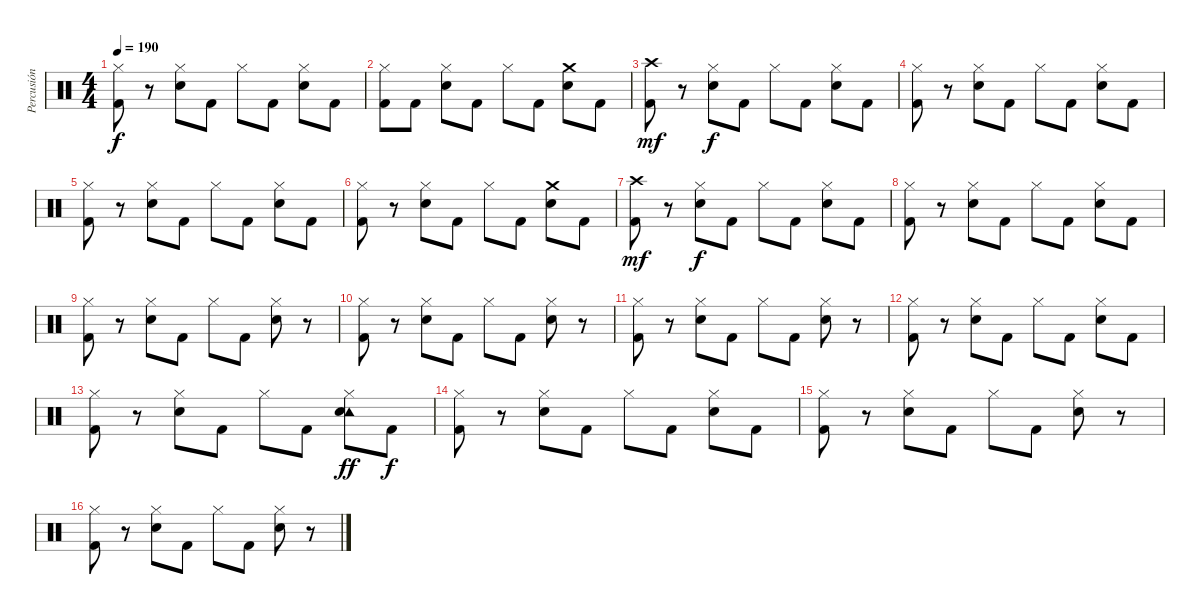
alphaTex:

\track ("Percusión" "Percusión") {instrument percussion}
\staff {score}
\articulation defaults
\ts (4 4)
\tempo 190
\clef neutral
\ks c
("Hi-Hat (closed)" "Kick (hit) 2").8{dy f} r.8 ("Hi-Hat (closed)" "Snare (hit) 2").8 "Kick (hit) 2".8 "Hi-Hat (closed)".8 "Kick (hit) 2".8 ("Hi-Hat (closed)" "Snare (hit) 2").8 "Kick (hit) 2".8 |
("Hi-Hat (closed)" "Kick (hit) 2").8 "Kick (hit) 2".8 ("Hi-Hat (closed)" "Snare (hit) 2").8 "Kick (hit) 2".8 "Hi-Hat (closed)".8 "Kick (hit) 2".8 ("Crash medium (hit)" "Snare (hit) 2").8 "Kick (hit) 2".8 |
("Crash high (hit)" "Kick (hit) 2").8{dy mf} r.8 ("Hi-Hat (closed)" "Snare (hit) 2").8{dy f} "Kick (hit) 2".8 "Hi-Hat (closed)".8 "Kick (hit) 2".8 ("Hi-Hat (closed)" "Snare (hit) 2").8 "Kick (hit) 2".8 |
("Hi-Hat (closed)" "Kick (hit) 2").8 r.8 ("Hi-Hat (closed)" "Snare (hit) 2").8 "Kick (hit) 2".8 "Hi-Hat (closed)".8 "Kick (hit) 2".8 ("Hi-Hat (closed)" "Snare (hit) 2").8 "Kick (hit) 2".8 |
("Hi-Hat (closed)" "Kick (hit) 2").8 r.8 ("Hi-Hat (closed)" "Snare (hit) 2").8 "Kick (hit) 2".8 "Hi-Hat (closed)".8 "Kick (hit) 2".8 ("Hi-Hat (closed)" "Snare (hit) 2").8 "Kick (hit) 2".8 |
("Hi-Hat (closed)" "Kick (hit) 2").8 r.8 ("Hi-Hat (closed)" "Snare (hit) 2").8 "Kick (hit) 2".8 "Hi-Hat (closed)".8 "Kick (hit) 2".8 ("Crash medium (hit)" "Snare (hit) 2").8 "Kick (hit) 2".8 |
("Crash high (hit)" "Kick (hit) 2").8{dy mf} r.8 ("Hi-Hat (closed)" "Snare (hit) 2").8{dy f} "Kick (hit) 2".8 "Hi-Hat (closed)".8 "Kick (hit) 2".8 ("Hi-Hat (closed)" "Snare (hit) 2").8 "Kick (hit) 2".8 |
("Hi-Hat (closed)" "Kick (hit) 2").8 r.8 ("Hi-Hat (closed)" "Snare (hit) 2").8 "Kick (hit) 2".8 "Hi-Hat (closed)".8 "Kick (hit) 2".8 ("Hi-Hat (closed)" "Snare (hit) 2").8 "Kick (hit) 2".8 |
("Hi-Hat (closed)" "Kick (hit) 2").8 r.8 ("Hi-Hat (closed)" "Snare (hit) 2").8 "Kick (hit) 2".8 "Hi-Hat (closed)".8 "Kick (hit) 2".8 ("Hi-Hat (closed)" "Snare (hit) 2").8 r.8 |
("Hi-Hat (closed)" "Kick (hit) 2").8 r.8 ("Hi-Hat (closed)" "Snare (hit) 2").8 "Kick (hit) 2".8 "Hi-Hat (closed)".8 "Kick (hit) 2".8 ("Hi-Hat (closed)" "Snare (hit) 2").8 r.8 |
("Hi-Hat (closed)" "Kick (hit) 2").8 r.8 ("Hi-Hat (closed)" "Snare (hit) 2").8 "Kick (hit) 2".8 "Hi-Hat (closed)".8 "Kick (hit) 2".8 ("Hi-Hat (closed)" "Snare (hit) 2").8 r.8 |
("Hi-Hat (closed)" "Kick (hit) 2").8 r.8 ("Hi-Hat (closed)" "Snare (hit) 2").8 "Kick (hit) 2".8 "Hi-Hat (closed)".8 "Kick (hit) 2".8 ("Hi-Hat (closed)" "Snare (hit) 2").8 "Kick (hit) 2".8 |
("Hi-Hat (closed)" "Kick (hit) 2").8 r.8 ("Hi-Hat (closed)" "Snare (hit) 2").8 "Kick (hit) 2".8 "Hi-Hat (closed)".8 "Kick (hit) 2".8 ("Hi-Hat (closed)" "Tambourine (hit)" "Snare (hit) 2").8{dy ff} "Kick (hit) 2".8{dy f} |
("Hi-Hat (closed)" "Kick (hit) 2").8 r.8 ("Hi-Hat (closed)" "Snare (hit) 2").8 "Kick (hit) 2".8 "Hi-Hat (closed)".8 "Kick (hit) 2".8 ("Hi-Hat (closed)" "Snare (hit) 2").8 "Kick (hit) 2".8 |
("Hi-Hat (closed)" "Kick (hit) 2").8 r.8 ("Hi-Hat (closed)" "Snare (hit) 2").8 "Kick (hit) 2".8 "Hi-Hat (closed)".8 "Kick (hit) 2".8 ("Hi-Hat (closed)" "Snare (hit) 2").8 r.8 |
("Hi-Hat (closed)" "Kick (hit) 2").8 r.8 ("Hi-Hat (closed)" "Snare (hit) 2").8 "Kick (hit) 2".8 "Hi-Hat (closed)".8 "Kick (hit) 2".8 ("Hi-Hat (closed)" "Snare (hit) 2").8 r.8
